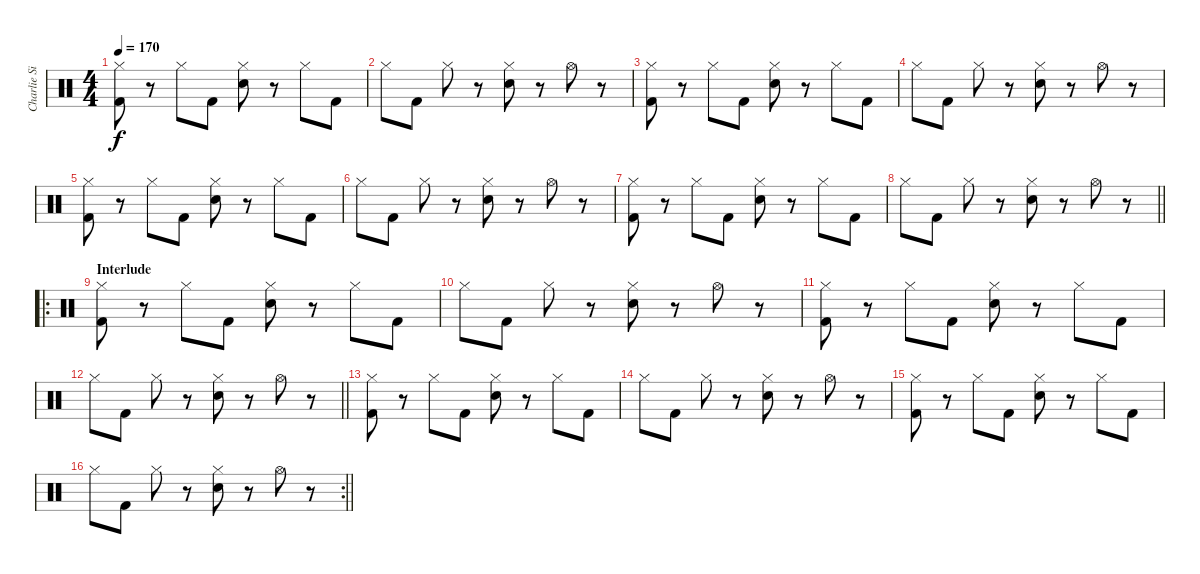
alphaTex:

\track ("Charlie Simpson (Drums)" "Charlie Si") {instrument percussion}
\staff {score}
\articulation defaults
\ts (4 4)
\tempo 170
\clef neutral
\ks c
("Hi-Hat (closed)" "Kick (hit) 2").8{dy f} r.8 "Hi-Hat (closed)".8 "Kick (hit) 2".8 ("Hi-Hat (closed)" "Snare (hit) 2").8 r.8 "Hi-Hat (closed)".8 "Kick (hit) 2".8 |
"Hi-Hat (closed)".8 "Kick (hit) 2".8 "Hi-Hat (closed)".8 r.8 ("Hi-Hat (closed)" "Snare (hit) 2").8 r.8 "Hi-Hat (open)".8 r.8 |
("Hi-Hat (closed)" "Kick (hit) 2").8 r.8 "Hi-Hat (closed)".8 "Kick (hit) 2".8 ("Hi-Hat (closed)" "Snare (hit) 2").8 r.8 "Hi-Hat (closed)".8 "Kick (hit) 2".8 |
"Hi-Hat (closed)".8 "Kick (hit) 2".8 "Hi-Hat (closed)".8 r.8 ("Hi-Hat (closed)" "Snare (hit) 2").8 r.8 "Hi-Hat (open)".8 r.8 |
("Hi-Hat (closed)" "Kick (hit) 2").8 r.8 "Hi-Hat (closed)".8 "Kick (hit) 2".8 ("Hi-Hat (closed)" "Snare (hit) 2").8 r.8 "Hi-Hat (closed)".8 "Kick (hit) 2".8 |
"Hi-Hat (closed)".8 "Kick (hit) 2".8 "Hi-Hat (closed)".8 r.8 ("Hi-Hat (closed)" "Snare (hit) 2").8 r.8 "Hi-Hat (open)".8 r.8 |
("Hi-Hat (closed)" "Kick (hit) 2").8 r.8 "Hi-Hat (closed)".8 "Kick (hit) 2".8 ("Hi-Hat (closed)" "Snare (hit) 2").8 r.8 "Hi-Hat (closed)".8 "Kick (hit) 2".8 |
\barLineRight lightlight "Hi-Hat (closed)".8 "Kick (hit) 2".8 "Hi-Hat (closed)".8
r.8 ("Hi-Hat (closed)" "Snare (hit) 2").8 r.8 "Hi-Hat (open)".8 r.8 |
\ro
\section ("" "Interlude")
("Hi-Hat (closed)" "Kick (hit) 2").8 r.8 "Hi-Hat (closed)".8 "Kick (hit) 2".8 ("Hi-Hat (closed)" "Snare (hit) 2").8 r.8 "Hi-Hat (closed)".8 "Kick (hit) 2".8 |
"Hi-Hat (closed)".8 "Kick (hit) 2".8 "Hi-Hat (closed)".8 r.8 ("Hi-Hat (closed)" "Snare (hit) 2").8 r.8 "Hi-Hat (open)".8 r.8 |
("Hi-Hat (closed)" "Kick (hit) 2").8 r.8 "Hi-Hat (closed)".8 "Kick (hit) 2".8 ("Hi-Hat (closed)" "Snare (hit) 2").8 r.8 "Hi-Hat (closed)".8 "Kick (hit) 2".8 |
\barLineRight lightlight "Hi-Hat (closed)".8 "Kick (hit) 2".8 "Hi-Hat (closed)".8
r.8 ("Hi-Hat (closed)" "Snare (hit) 2").8 r.8 "Hi-Hat (open)".8 r.8 |
("Hi-Hat (closed)" "Kick (hit) 2").8 r.8 "Hi-Hat (closed)".8 "Kick (hit) 2".8 ("Hi-Hat (closed)" "Snare (hit) 2").8 r.8 "Hi-Hat (closed)".8 "Kick (hit) 2".8 |
"Hi-Hat (closed)".8 "Kick (hit) 2".8 "Hi-Hat (closed)".8 r.8 ("Hi-Hat (closed)" "Snare (hit) 2").8 r.8 "Hi-Hat (open)".8 r.8 |
("Hi-Hat (closed)" "Kick (hit) 2").8 r.8 "Hi-Hat (closed)".8 "Kick (hit) 2".8 ("Hi-Hat (closed)" "Snare (hit) 2").8 r.8 "Hi-Hat (closed)".8 "Kick (hit) 2".8 |
\rc 2
\barLineRight lightlight "Hi-Hat (closed)".8 "Kick (hit) 2".8 "Hi-Hat (closed)".8
r.8 ("Hi-Hat (closed)" "Snare (hit) 2").8 r.8 "Hi-Hat (open)".8 r.8
